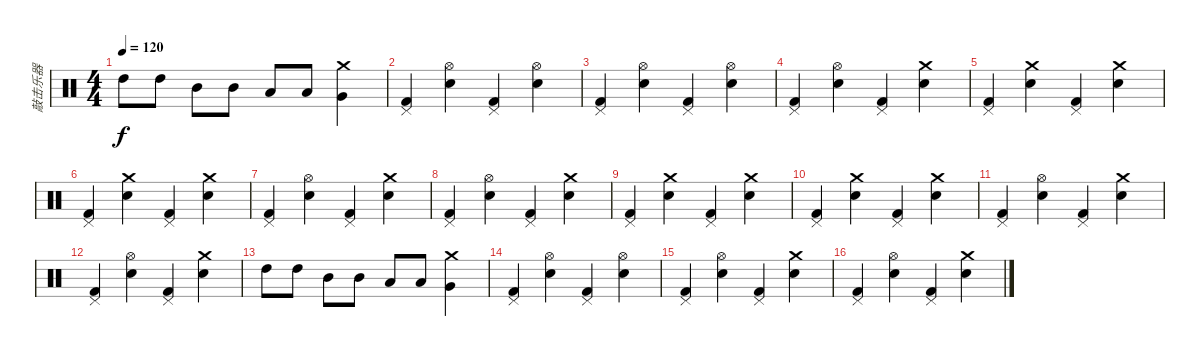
\track ("敲击乐器" "敲击乐器") {instrument percussion}
\staff {score}
\articulation defaults
\ts (4 4)
\tempo 120
\clef neutral
\ks c "High Tom (hit)".8{dy f} "High Tom (hit)".8 "Mid Tom (hit)".8 "Mid Tom (hit)".8 "Low Tom (hit)".8 "Low Tom (hit)".8
("Crash medium (hit)" "Very Low Tom (hit)").4 |
("Pedal Hi-Hat (hit)" "Kick (hit) 2").4 ("Hi-Hat (open)" "Electric Snare (hit)").4 ("Pedal Hi-Hat (hit)" "Kick (hit) 2").4 ("Hi-Hat (open)" "Electric Snare (hit)").4 |
("Pedal Hi-Hat (hit)" "Kick (hit) 2").4 ("Hi-Hat (open)" "Electric Snare (hit)").4 ("Pedal Hi-Hat (hit)" "Kick (hit) 2").4 ("Hi-Hat (open)" "Electric Snare (hit)").4 |
("Pedal Hi-Hat (hit)" "Kick (hit) 2").4 ("Hi-Hat (open)" "Electric Snare (hit)").4 ("Pedal Hi-Hat (hit)" "Kick (hit) 2").4 ("Crash medium (hit)" "Electric Snare (hit)").4 |
("Pedal Hi-Hat (hit)" "Kick (hit) 2").4 ("Crash medium (hit)" "Electric Snare (hit)").4 ("Pedal Hi-Hat (hit)" "Kick (hit) 2").4 ("Crash medium (hit)" "Electric Snare (hit)").4 |
("Pedal Hi-Hat (hit)" "Kick (hit) 2").4 ("Crash medium (hit)" "Electric Snare (hit)").4 ("Pedal Hi-Hat (hit)" "Kick (hit) 2").4 ("Crash medium (hit)" "Electric Snare (hit)").4 |
("Pedal Hi-Hat (hit)" "Kick (hit) 2").4 ("Hi-Hat (open)" "Electric Snare (hit)").4 ("Pedal Hi-Hat (hit)" "Kick (hit) 2").4 ("Crash medium (hit)" "Electric Snare (hit)").4 |
("Pedal Hi-Hat (hit)" "Kick (hit) 2").4 ("Hi-Hat (open)" "Electric Snare (hit)").4 ("Pedal Hi-Hat (hit)" "Kick (hit) 2").4 ("Crash medium (hit)" "Electric Snare (hit)").4 |
("Pedal Hi-Hat (hit)" "Kick (hit) 2").4 ("Crash medium (hit)" "Electric Snare (hit)").4 ("Pedal Hi-Hat (hit)" "Kick (hit) 2").4 ("Crash medium (hit)" "Electric Snare (hit)").4 |
("Pedal Hi-Hat (hit)" "Kick (hit) 2").4 ("Crash medium (hit)" "Electric Snare (hit)").4 ("Pedal Hi-Hat (hit)" "Kick (hit) 2").4 ("Crash medium (hit)" "Electric Snare (hit)").4 |
("Pedal Hi-Hat (hit)" "Kick (hit) 2").4 ("Hi-Hat (open)" "Electric Snare (hit)").4 ("Pedal Hi-Hat (hit)" "Kick (hit) 2").4 ("Crash medium (hit)" "Electric Snare (hit)").4 |
("Pedal Hi-Hat (hit)" "Kick (hit) 2").4 ("Hi-Hat (open)" "Electric Snare (hit)").4 ("Pedal Hi-Hat (hit)" "Kick (hit) 2").4 ("Crash medium (hit)" "Electric Snare (hit)").4 |
"High Tom (hit)".8 "High Tom (hit)".8 "Mid Tom (hit)".8 "Mid Tom (hit)".8 "Low Tom (hit)".8 "Low Tom (hit)".8 ("Crash medium (hit)" "Very Low Tom (hit)").4 |
("Pedal Hi-Hat (hit)" "Kick (hit) 2").4 ("Hi-Hat (open)" "Electric Snare (hit)").4 ("Pedal Hi-Hat (hit)" "Kick (hit) 2").4 ("Hi-Hat (open)" "Electric Snare (hit)").4 |
("Pedal Hi-Hat (hit)" "Kick (hit) 2").4 ("Hi-Hat (open)" "Electric Snare (hit)").4 ("Pedal Hi-Hat (hit)" "Kick (hit) 2").4 ("Crash medium (hit)" "Electric Snare (hit)").4 |
("Pedal Hi-Hat (hit)" "Kick (hit) 2").4 ("Hi-Hat (open)" "Electric Snare (hit)").4 ("Pedal Hi-Hat (hit)" "Kick (hit) 2").4 ("Crash medium (hit)" "Electric Snare (hit)").4
